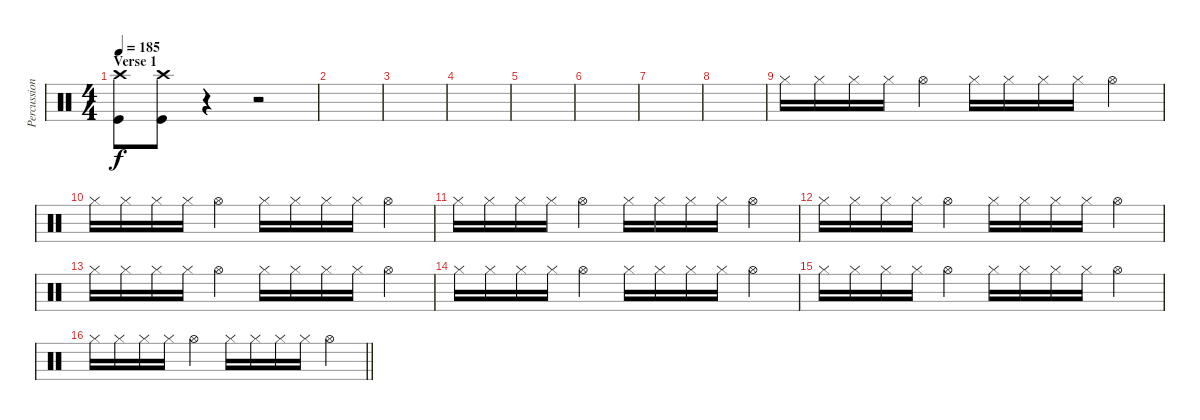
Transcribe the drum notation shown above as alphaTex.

\track ("Percussion" "Percussion") {instrument percussion}
\staff {score}
\articulation defaults
\ts (4 4)
\section ("" "Verse 1")
\tempo 185
\clef neutral
\ks c
("Crash high (hit)" "Kick (hit)").8{dy f} ("Kick (hit)" "Crash high (hit)").8 r.4 r.2 |
|
|
|
|
|
|
|
"Hi-Hat (closed)".16 "Hi-Hat (closed)".16 "Hi-Hat (closed)".16 "Hi-Hat (closed)".16 "Hi-Hat (open)".4 "Hi-Hat (closed)".16 "Hi-Hat (closed)".16 "Hi-Hat (closed)".16 "Hi-Hat (closed)".16 "Hi-Hat (open)".4 |
"Hi-Hat (closed)".16 "Hi-Hat (closed)".16 "Hi-Hat (closed)".16 "Hi-Hat (closed)".16 "Hi-Hat (open)".4 "Hi-Hat (closed)".16 "Hi-Hat (closed)".16 "Hi-Hat (closed)".16 "Hi-Hat (closed)".16 "Hi-Hat (open)".4 |
"Hi-Hat (closed)".16 "Hi-Hat (closed)".16 "Hi-Hat (closed)".16 "Hi-Hat (closed)".16 "Hi-Hat (open)".4 "Hi-Hat (closed)".16 "Hi-Hat (closed)".16 "Hi-Hat (closed)".16 "Hi-Hat (closed)".16 "Hi-Hat (open)".4 |
"Hi-Hat (closed)".16 "Hi-Hat (closed)".16 "Hi-Hat (closed)".16 "Hi-Hat (closed)".16 "Hi-Hat (open)".4 "Hi-Hat (closed)".16 "Hi-Hat (closed)".16 "Hi-Hat (closed)".16 "Hi-Hat (closed)".16 "Hi-Hat (open)".4 |
"Hi-Hat (closed)".16 "Hi-Hat (closed)".16 "Hi-Hat (closed)".16 "Hi-Hat (closed)".16 "Hi-Hat (open)".4 "Hi-Hat (closed)".16 "Hi-Hat (closed)".16 "Hi-Hat (closed)".16 "Hi-Hat (closed)".16 "Hi-Hat (open)".4 |
"Hi-Hat (closed)".16 "Hi-Hat (closed)".16 "Hi-Hat (closed)".16 "Hi-Hat (closed)".16 "Hi-Hat (open)".4 "Hi-Hat (closed)".16 "Hi-Hat (closed)".16 "Hi-Hat (closed)".16 "Hi-Hat (closed)".16 "Hi-Hat (open)".4 |
"Hi-Hat (closed)".16 "Hi-Hat (closed)".16 "Hi-Hat (closed)".16 "Hi-Hat (closed)".16 "Hi-Hat (open)".4 "Hi-Hat (closed)".16 "Hi-Hat (closed)".16 "Hi-Hat (closed)".16 "Hi-Hat (closed)".16 "Hi-Hat (open)".4 |
\barLineRight lightlight "Hi-Hat (closed)".16 "Hi-Hat (closed)".16 "Hi-Hat (closed)".16 "Hi-Hat (closed)".16 "Hi-Hat (open)".4 "Hi-Hat (closed)".16 "Hi-Hat (closed)".16 "Hi-Hat (closed)".16 "Hi-Hat (closed)".16 "Hi-Hat (open)".4
